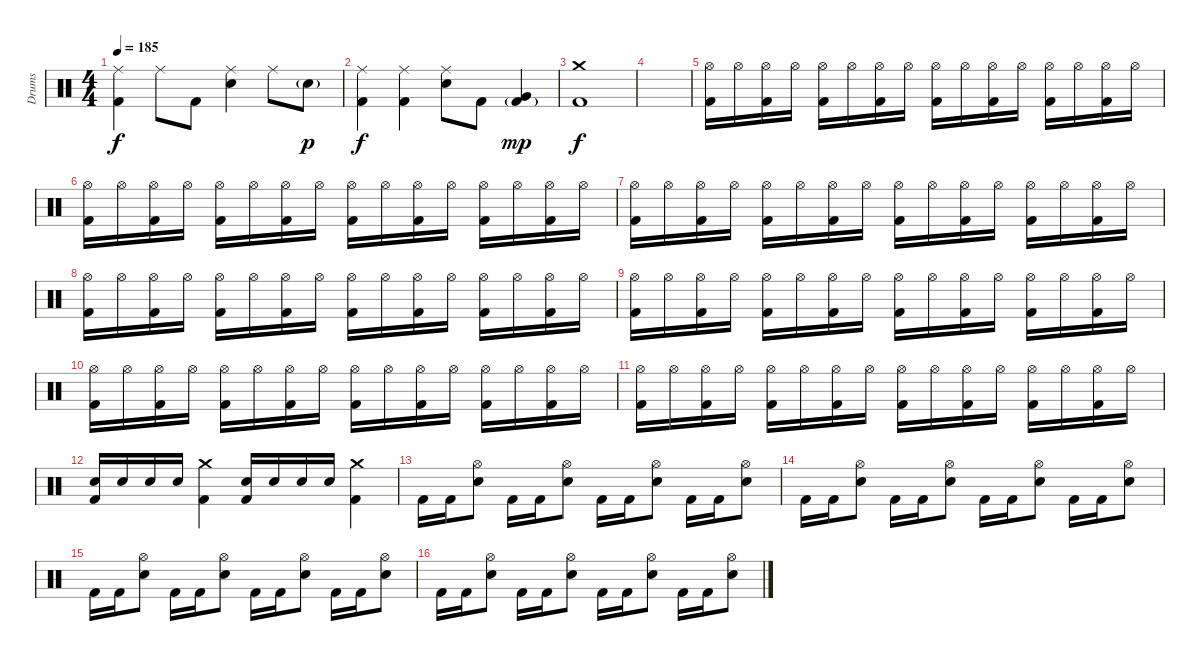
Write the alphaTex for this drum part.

\track ("Drums" "Drums") {instrument percussion}
\staff {score}
\articulation defaults
\ts (4 4)
\tempo 185
\clef neutral
\ks c
("Ride (middle)" "Kick (hit) 2").4{dy f} "Ride (middle)".8 "Kick (hit) 2".8 ("Ride (middle)" "Electric Snare (hit)").4 "Ride (middle)".8 "Electric Snare (hit)"{g}.8{dy p} |
("Ride (middle)" "Kick (hit) 2").4{dy f} ("Ride (middle)" "Kick (hit) 2").4 ("Ride (middle)" "Electric Snare (hit)").8 "Kick (hit) 2".8 ("Very Low Tom (hit)" "Kick (hit) 2"{g}).4{dy mp} |
("Crash medium (hit)" "Kick (hit) 2").1{dy f} |
|
("Hi-Hat (open)" "Kick (hit) 2").16 "Hi-Hat (open)".16 ("Hi-Hat (open)" "Kick (hit) 2").16 "Hi-Hat (open)".16 ("Hi-Hat (open)" "Kick (hit) 2").16 "Hi-Hat (open)".16 ("Hi-Hat (open)" "Kick (hit) 2").16 "Hi-Hat (open)".16 ("Hi-Hat (open)" "Kick (hit) 2").16 "Hi-Hat (open)".16 ("Hi-Hat (open)" "Kick (hit) 2").16 "Hi-Hat (open)".16 ("Hi-Hat (open)" "Kick (hit) 2").16 "Hi-Hat (open)".16 ("Hi-Hat (open)" "Kick (hit) 2").16 "Hi-Hat (open)".16 |
("Hi-Hat (open)" "Kick (hit) 2").16 "Hi-Hat (open)".16 ("Hi-Hat (open)" "Kick (hit) 2").16 "Hi-Hat (open)".16 ("Hi-Hat (open)" "Kick (hit) 2").16 "Hi-Hat (open)".16 ("Hi-Hat (open)" "Kick (hit) 2").16 "Hi-Hat (open)".16 ("Hi-Hat (open)" "Kick (hit) 2").16 "Hi-Hat (open)".16 ("Hi-Hat (open)" "Kick (hit) 2").16 "Hi-Hat (open)".16 ("Hi-Hat (open)" "Kick (hit) 2").16 "Hi-Hat (open)".16 ("Hi-Hat (open)" "Kick (hit) 2").16 "Hi-Hat (open)".16 |
("Hi-Hat (open)" "Kick (hit) 2").16 "Hi-Hat (open)".16 ("Hi-Hat (open)" "Kick (hit) 2").16 "Hi-Hat (open)".16 ("Hi-Hat (open)" "Kick (hit) 2").16 "Hi-Hat (open)".16 ("Hi-Hat (open)" "Kick (hit) 2").16 "Hi-Hat (open)".16 ("Hi-Hat (open)" "Kick (hit) 2").16 "Hi-Hat (open)".16 ("Hi-Hat (open)" "Kick (hit) 2").16 "Hi-Hat (open)".16 ("Hi-Hat (open)" "Kick (hit) 2").16 "Hi-Hat (open)".16 ("Hi-Hat (open)" "Kick (hit) 2").16 "Hi-Hat (open)".16 |
("Hi-Hat (open)" "Kick (hit) 2").16 "Hi-Hat (open)".16 ("Hi-Hat (open)" "Kick (hit) 2").16 "Hi-Hat (open)".16 ("Hi-Hat (open)" "Kick (hit) 2").16 "Hi-Hat (open)".16 ("Hi-Hat (open)" "Kick (hit) 2").16 "Hi-Hat (open)".16 ("Hi-Hat (open)" "Kick (hit) 2").16 "Hi-Hat (open)".16 ("Hi-Hat (open)" "Kick (hit) 2").16 "Hi-Hat (open)".16 ("Hi-Hat (open)" "Kick (hit) 2").16 "Hi-Hat (open)".16 ("Hi-Hat (open)" "Kick (hit) 2").16 "Hi-Hat (open)".16 |
("Hi-Hat (open)" "Kick (hit) 2").16 "Hi-Hat (open)".16 ("Hi-Hat (open)" "Kick (hit) 2").16 "Hi-Hat (open)".16 ("Hi-Hat (open)" "Kick (hit) 2").16 "Hi-Hat (open)".16 ("Hi-Hat (open)" "Kick (hit) 2").16 "Hi-Hat (open)".16 ("Hi-Hat (open)" "Kick (hit) 2").16 "Hi-Hat (open)".16 ("Hi-Hat (open)" "Kick (hit) 2").16 "Hi-Hat (open)".16 ("Hi-Hat (open)" "Kick (hit) 2").16 "Hi-Hat (open)".16 ("Hi-Hat (open)" "Kick (hit) 2").16 "Hi-Hat (open)".16 |
("Hi-Hat (open)" "Kick (hit) 2").16 "Hi-Hat (open)".16 ("Hi-Hat (open)" "Kick (hit) 2").16 "Hi-Hat (open)".16 ("Hi-Hat (open)" "Kick (hit) 2").16 "Hi-Hat (open)".16 ("Hi-Hat (open)" "Kick (hit) 2").16 "Hi-Hat (open)".16 ("Hi-Hat (open)" "Kick (hit) 2").16 "Hi-Hat (open)".16 ("Hi-Hat (open)" "Kick (hit) 2").16 "Hi-Hat (open)".16 ("Hi-Hat (open)" "Kick (hit) 2").16 "Hi-Hat (open)".16 ("Hi-Hat (open)" "Kick (hit) 2").16 "Hi-Hat (open)".16 |
("Hi-Hat (open)" "Kick (hit) 2").16 "Hi-Hat (open)".16 ("Hi-Hat (open)" "Kick (hit) 2").16 "Hi-Hat (open)".16 ("Hi-Hat (open)" "Kick (hit) 2").16 "Hi-Hat (open)".16 ("Hi-Hat (open)" "Kick (hit) 2").16 "Hi-Hat (open)".16 ("Hi-Hat (open)" "Kick (hit) 2").16 "Hi-Hat (open)".16 ("Hi-Hat (open)" "Kick (hit) 2").16 "Hi-Hat (open)".16 ("Hi-Hat (open)" "Kick (hit) 2").16 "Hi-Hat (open)".16 ("Hi-Hat (open)" "Kick (hit) 2").16 "Hi-Hat (open)".16 |
("Electric Snare (hit)" "Kick (hit) 2").16 "Electric Snare (hit)".16 "Electric Snare (hit)".16 "Electric Snare (hit)".16 ("Crash medium (hit)" "Kick (hit) 2").4 ("Electric Snare (hit)" "Kick (hit) 2").16 "Electric Snare (hit)".16 "Electric Snare (hit)".16 "Electric Snare (hit)".16 ("Crash medium (hit)" "Kick (hit) 2").4 |
"Kick (hit) 2".16 "Kick (hit) 2".16 ("Hi-Hat (open)" "Electric Snare (hit)").8 "Kick (hit) 2".16 "Kick (hit) 2".16 ("Hi-Hat (open)" "Electric Snare (hit)").8 "Kick (hit) 2".16 "Kick (hit) 2".16 ("Hi-Hat (open)" "Electric Snare (hit)").8 "Kick (hit) 2".16 "Kick (hit) 2".16 ("Hi-Hat (open)" "Electric Snare (hit)").8 |
"Kick (hit) 2".16 "Kick (hit) 2".16 ("Hi-Hat (open)" "Electric Snare (hit)").8 "Kick (hit) 2".16 "Kick (hit) 2".16 ("Hi-Hat (open)" "Electric Snare (hit)").8 "Kick (hit) 2".16 "Kick (hit) 2".16 ("Hi-Hat (open)" "Electric Snare (hit)").8 "Kick (hit) 2".16 "Kick (hit) 2".16 ("Hi-Hat (open)" "Electric Snare (hit)").8 |
"Kick (hit) 2".16 "Kick (hit) 2".16 ("Hi-Hat (open)" "Electric Snare (hit)").8 "Kick (hit) 2".16 "Kick (hit) 2".16 ("Hi-Hat (open)" "Electric Snare (hit)").8 "Kick (hit) 2".16 "Kick (hit) 2".16 ("Hi-Hat (open)" "Electric Snare (hit)").8 "Kick (hit) 2".16 "Kick (hit) 2".16 ("Hi-Hat (open)" "Electric Snare (hit)").8 |
"Kick (hit) 2".16 "Kick (hit) 2".16 ("Hi-Hat (open)" "Electric Snare (hit)").8 "Kick (hit) 2".16 "Kick (hit) 2".16 ("Hi-Hat (open)" "Electric Snare (hit)").8 "Kick (hit) 2".16 "Kick (hit) 2".16 ("Hi-Hat (open)" "Electric Snare (hit)").8 "Kick (hit) 2".16 "Kick (hit) 2".16 ("Hi-Hat (open)" "Electric Snare (hit)").8
